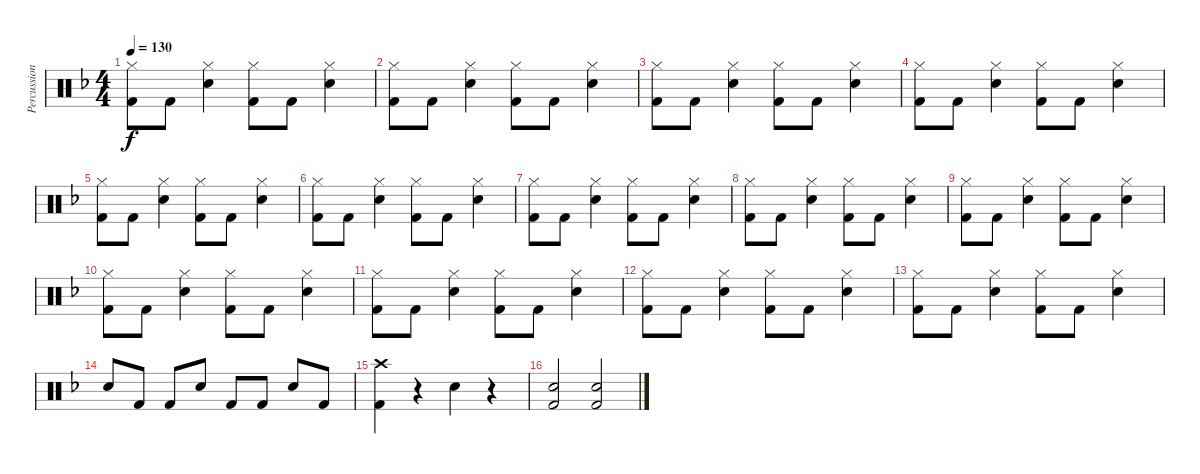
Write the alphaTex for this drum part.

\track ("Percussion" "Percussion") {instrument percussion}
\staff {score}
\articulation defaults
\ts (4 4)
\tempo 130
\clef neutral
\ks dminor
("Hi-Hat (closed)" "Kick (hit) 2").8{dy f} "Kick (hit) 2".8 ("Hi-Hat (closed)" "Snare (hit) 2").4 ("Hi-Hat (closed)" "Kick (hit) 2").8 "Kick (hit) 2".8 ("Hi-Hat (closed)" "Snare (hit) 2").4 |
("Hi-Hat (closed)" "Kick (hit) 2").8 "Kick (hit) 2".8 ("Hi-Hat (closed)" "Snare (hit) 2").4 ("Hi-Hat (closed)" "Kick (hit) 2").8 "Kick (hit) 2".8 ("Hi-Hat (closed)" "Snare (hit) 2").4 |
("Hi-Hat (closed)" "Kick (hit) 2").8 "Kick (hit) 2".8 ("Hi-Hat (closed)" "Snare (hit) 2").4 ("Hi-Hat (closed)" "Kick (hit) 2").8 "Kick (hit) 2".8 ("Hi-Hat (closed)" "Snare (hit) 2").4 |
("Hi-Hat (closed)" "Kick (hit) 2").8 "Kick (hit) 2".8 ("Hi-Hat (closed)" "Snare (hit) 2").4 ("Hi-Hat (closed)" "Kick (hit) 2").8 "Kick (hit) 2".8 ("Hi-Hat (closed)" "Snare (hit) 2").4 |
("Hi-Hat (closed)" "Kick (hit) 2").8 "Kick (hit) 2".8 ("Hi-Hat (closed)" "Snare (hit) 2").4 ("Hi-Hat (closed)" "Kick (hit) 2").8 "Kick (hit) 2".8 ("Hi-Hat (closed)" "Snare (hit) 2").4 |
("Hi-Hat (closed)" "Kick (hit) 2").8 "Kick (hit) 2".8 ("Hi-Hat (closed)" "Snare (hit) 2").4 ("Hi-Hat (closed)" "Kick (hit) 2").8 "Kick (hit) 2".8 ("Hi-Hat (closed)" "Snare (hit) 2").4 |
("Hi-Hat (closed)" "Kick (hit) 2").8 "Kick (hit) 2".8 ("Hi-Hat (closed)" "Snare (hit) 2").4 ("Hi-Hat (closed)" "Kick (hit) 2").8 "Kick (hit) 2".8 ("Hi-Hat (closed)" "Snare (hit) 2").4 |
("Hi-Hat (closed)" "Kick (hit) 2").8 "Kick (hit) 2".8 ("Hi-Hat (closed)" "Snare (hit) 2").4 ("Hi-Hat (closed)" "Kick (hit) 2").8 "Kick (hit) 2".8 ("Hi-Hat (closed)" "Snare (hit) 2").4 |
("Hi-Hat (closed)" "Kick (hit) 2").8 "Kick (hit) 2".8 ("Hi-Hat (closed)" "Snare (hit) 2").4 ("Hi-Hat (closed)" "Kick (hit) 2").8 "Kick (hit) 2".8 ("Hi-Hat (closed)" "Snare (hit) 2").4 |
("Hi-Hat (closed)" "Kick (hit) 2").8 "Kick (hit) 2".8 ("Hi-Hat (closed)" "Snare (hit) 2").4 ("Hi-Hat (closed)" "Kick (hit) 2").8 "Kick (hit) 2".8 ("Hi-Hat (closed)" "Snare (hit) 2").4 |
("Hi-Hat (closed)" "Kick (hit) 2").8 "Kick (hit) 2".8 ("Hi-Hat (closed)" "Snare (hit) 2").4 ("Hi-Hat (closed)" "Kick (hit) 2").8 "Kick (hit) 2".8 ("Hi-Hat (closed)" "Snare (hit) 2").4 |
("Hi-Hat (closed)" "Kick (hit) 2").8 "Kick (hit) 2".8 ("Hi-Hat (closed)" "Snare (hit) 2").4 ("Hi-Hat (closed)" "Kick (hit) 2").8 "Kick (hit) 2".8 ("Hi-Hat (closed)" "Snare (hit) 2").4 |
("Hi-Hat (closed)" "Kick (hit) 2").8 "Kick (hit) 2".8 ("Hi-Hat (closed)" "Snare (hit) 2").4 ("Hi-Hat (closed)" "Kick (hit) 2").8 "Kick (hit) 2".8 ("Hi-Hat (closed)" "Snare (hit) 2").4 |
"Snare (hit) 2".8 "Kick (hit) 2".8 "Kick (hit) 2".8 "Snare (hit) 2".8 "Kick (hit) 2".8 "Kick (hit) 2".8 "Snare (hit) 2".8 "Kick (hit) 2".8 |
("Crash high (hit)" "Kick (hit) 2").4 r.4 "Snare (hit) 2".4 r.4 |
("Snare (hit) 2" "Kick (hit) 2").2 ("Snare (hit) 2" "Kick (hit) 2").2
